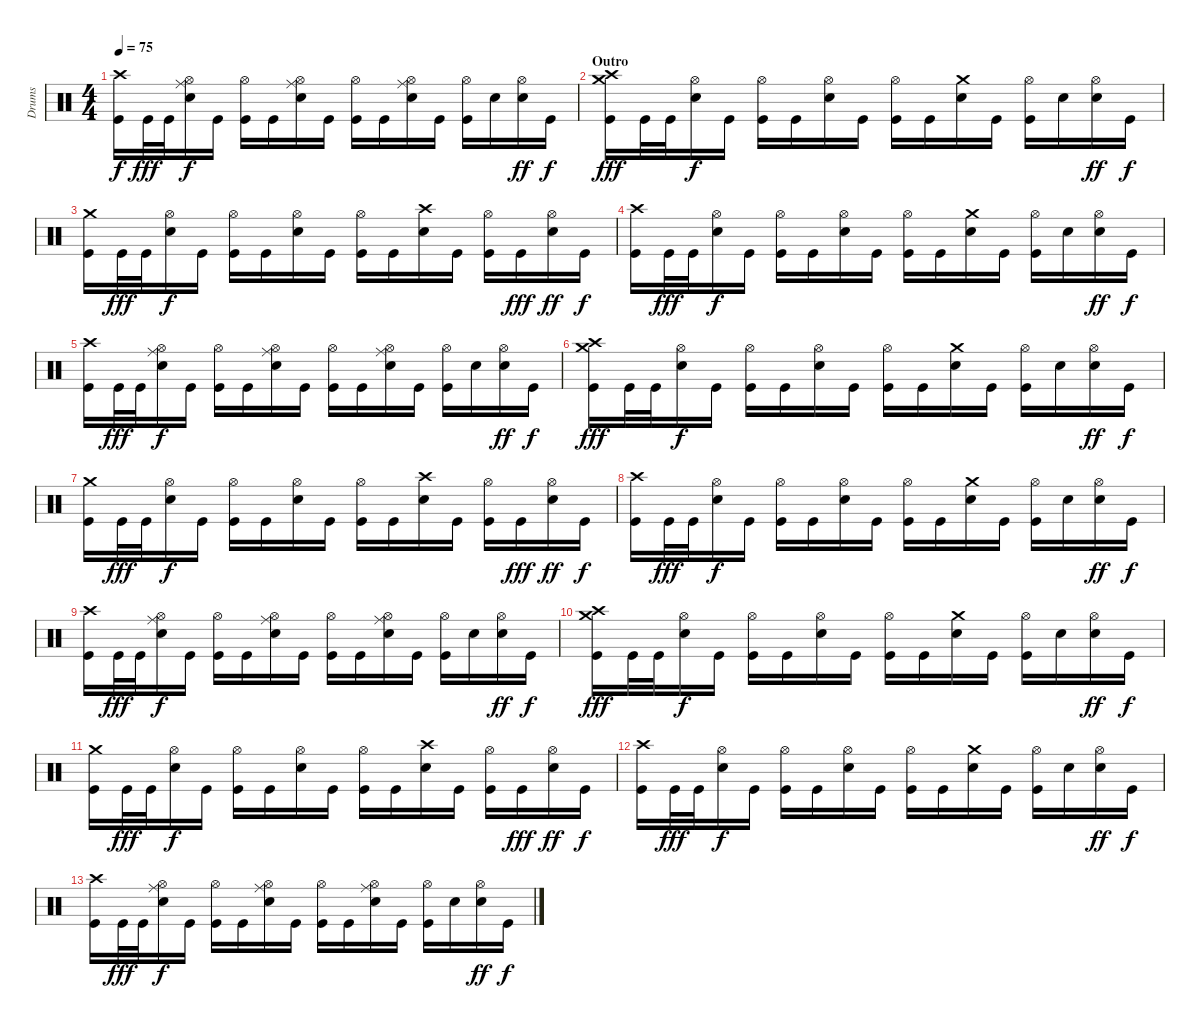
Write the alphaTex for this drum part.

\track ("Drums" "Drums") {instrument percussion}
\staff {score}
\articulation defaults
\ts (4 4)
\tempo 75
\clef neutral
\ks c
("Crash high (hit)" "Kick (hit)").16{dy f} "Kick (hit)".32{dy fff} "Kick (hit)".32 ("Hi-Hat (open)" "Ride (middle)" "Electric Snare (hit)").16{dy f} "Kick (hit)".16 ("Hi-Hat (open)" "Kick (hit)").16 "Kick (hit)".16 ("Hi-Hat (open)" "Ride (middle)" "Electric Snare (hit)").16 "Kick (hit)".16 ("Hi-Hat (open)" "Kick (hit)").16 "Kick (hit)".16 ("Hi-Hat (open)" "Ride (middle)" "Electric Snare (hit)").16 "Kick (hit)".16 ("Hi-Hat (open)" "Kick (hit)").16 "Electric Snare (hit)".16 ("Hi-Hat (open)" "Electric Snare (hit)").16{dy ff} "Kick (hit)".16{dy f} |
\section ("" "Outro")
("Crash medium (hit)" "Crash high (hit)" "Kick (hit)").16{dy fff} "Kick (hit)".32 "Kick (hit)".32 ("Hi-Hat (open)" "Electric Snare (hit)").16{dy f} "Kick (hit)".16 ("Hi-Hat (open)" "Kick (hit)").16 "Kick (hit)".16 ("Hi-Hat (open)" "Electric Snare (hit)").16 "Kick (hit)".16 ("Hi-Hat (open)" "Kick (hit)").16 "Kick (hit)".16 ("Crash medium (hit)" "Electric Snare (hit)").16 "Kick (hit)".16 ("Hi-Hat (open)" "Kick (hit)").16 "Electric Snare (hit)".16 ("Hi-Hat (open)" "Electric Snare (hit)").16{dy ff} "Kick (hit)".16{dy f} |
("Crash medium (hit)" "Kick (hit)").16 "Kick (hit)".32{dy fff} "Kick (hit)".32 ("Hi-Hat (open)" "Electric Snare (hit)").16{dy f} "Kick (hit)".16 ("Hi-Hat (open)" "Kick (hit)").16 "Kick (hit)".16 ("Hi-Hat (open)" "Electric Snare (hit)").16 "Kick (hit)".16 ("Hi-Hat (open)" "Kick (hit)").16 "Kick (hit)".16 ("Crash high (hit)" "Electric Snare (hit)").16 "Kick (hit)".16 ("Hi-Hat (open)" "Kick (hit)").16 "Kick (hit)".16{dy fff} ("Hi-Hat (open)" "Electric Snare (hit)").16{dy ff} "Kick (hit)".16{dy f} |
("Crash high (hit)" "Kick (hit)").16 "Kick (hit)".32{dy fff} "Kick (hit)".32 ("Hi-Hat (open)" "Electric Snare (hit)").16{dy f} "Kick (hit)".16 ("Hi-Hat (open)" "Kick (hit)").16 "Kick (hit)".16 ("Hi-Hat (open)" "Electric Snare (hit)").16 "Kick (hit)".16 ("Hi-Hat (open)" "Kick (hit)").16 "Kick (hit)".16 ("Crash medium (hit)" "Electric Snare (hit)").16 "Kick (hit)".16 ("Hi-Hat (open)" "Kick (hit)").16 "Electric Snare (hit)".16 ("Hi-Hat (open)" "Electric Snare (hit)").16{dy ff} "Kick (hit)".16{dy f} |
("Crash high (hit)" "Kick (hit)").16 "Kick (hit)".32{dy fff} "Kick (hit)".32 ("Hi-Hat (open)" "Ride (middle)" "Electric Snare (hit)").16{dy f} "Kick (hit)".16 ("Hi-Hat (open)" "Kick (hit)").16 "Kick (hit)".16 ("Hi-Hat (open)" "Ride (middle)" "Electric Snare (hit)").16 "Kick (hit)".16 ("Hi-Hat (open)" "Kick (hit)").16 "Kick (hit)".16 ("Hi-Hat (open)" "Ride (middle)" "Electric Snare (hit)").16 "Kick (hit)".16 ("Hi-Hat (open)" "Kick (hit)").16 "Electric Snare (hit)".16 ("Hi-Hat (open)" "Electric Snare (hit)").16{dy ff} "Kick (hit)".16{dy f} |
("Crash medium (hit)" "Crash high (hit)" "Kick (hit)").16{dy fff} "Kick (hit)".32 "Kick (hit)".32 ("Hi-Hat (open)" "Electric Snare (hit)").16{dy f} "Kick (hit)".16 ("Hi-Hat (open)" "Kick (hit)").16 "Kick (hit)".16 ("Hi-Hat (open)" "Electric Snare (hit)").16 "Kick (hit)".16 ("Hi-Hat (open)" "Kick (hit)").16 "Kick (hit)".16 ("Crash medium (hit)" "Electric Snare (hit)").16 "Kick (hit)".16 ("Hi-Hat (open)" "Kick (hit)").16 "Electric Snare (hit)".16 ("Hi-Hat (open)" "Electric Snare (hit)").16{dy ff} "Kick (hit)".16{dy f} |
("Crash medium (hit)" "Kick (hit)").16 "Kick (hit)".32{dy fff} "Kick (hit)".32 ("Hi-Hat (open)" "Electric Snare (hit)").16{dy f} "Kick (hit)".16 ("Hi-Hat (open)" "Kick (hit)").16 "Kick (hit)".16 ("Hi-Hat (open)" "Electric Snare (hit)").16 "Kick (hit)".16 ("Hi-Hat (open)" "Kick (hit)").16 "Kick (hit)".16 ("Crash high (hit)" "Electric Snare (hit)").16 "Kick (hit)".16 ("Hi-Hat (open)" "Kick (hit)").16 "Kick (hit)".16{dy fff} ("Hi-Hat (open)" "Electric Snare (hit)").16{dy ff} "Kick (hit)".16{dy f} |
("Crash high (hit)" "Kick (hit)").16 "Kick (hit)".32{dy fff} "Kick (hit)".32 ("Hi-Hat (open)" "Electric Snare (hit)").16{dy f} "Kick (hit)".16 ("Hi-Hat (open)" "Kick (hit)").16 "Kick (hit)".16 ("Hi-Hat (open)" "Electric Snare (hit)").16 "Kick (hit)".16 ("Hi-Hat (open)" "Kick (hit)").16 "Kick (hit)".16 ("Crash medium (hit)" "Electric Snare (hit)").16 "Kick (hit)".16 ("Hi-Hat (open)" "Kick (hit)").16 "Electric Snare (hit)".16 ("Hi-Hat (open)" "Electric Snare (hit)").16{dy ff} "Kick (hit)".16{dy f} |
("Crash high (hit)" "Kick (hit)").16{volume 0} "Kick (hit)".32{dy fff} "Kick (hit)".32 ("Hi-Hat (open)" "Ride (middle)" "Electric Snare (hit)").16{dy f} "Kick (hit)".16 ("Hi-Hat (open)" "Kick (hit)").16 "Kick (hit)".16 ("Hi-Hat (open)" "Ride (middle)" "Electric Snare (hit)").16 "Kick (hit)".16 ("Hi-Hat (open)" "Kick (hit)").16 "Kick (hit)".16 ("Hi-Hat (open)" "Ride (middle)" "Electric Snare (hit)").16 "Kick (hit)".16 ("Hi-Hat (open)" "Kick (hit)").16 "Electric Snare (hit)".16 ("Hi-Hat (open)" "Electric Snare (hit)").16{dy ff} "Kick (hit)".16{dy f} |
("Crash medium (hit)" "Crash high (hit)" "Kick (hit)").16{dy fff} "Kick (hit)".32 "Kick (hit)".32 ("Hi-Hat (open)" "Electric Snare (hit)").16{dy f} "Kick (hit)".16 ("Hi-Hat (open)" "Kick (hit)").16 "Kick (hit)".16 ("Hi-Hat (open)" "Electric Snare (hit)").16 "Kick (hit)".16 ("Hi-Hat (open)" "Kick (hit)").16 "Kick (hit)".16 ("Crash medium (hit)" "Electric Snare (hit)").16 "Kick (hit)".16 ("Hi-Hat (open)" "Kick (hit)").16 "Electric Snare (hit)".16 ("Hi-Hat (open)" "Electric Snare (hit)").16{dy ff} "Kick (hit)".16{dy f} |
("Crash medium (hit)" "Kick (hit)").16 "Kick (hit)".32{dy fff} "Kick (hit)".32 ("Hi-Hat (open)" "Electric Snare (hit)").16{dy f} "Kick (hit)".16 ("Hi-Hat (open)" "Kick (hit)").16 "Kick (hit)".16 ("Hi-Hat (open)" "Electric Snare (hit)").16 "Kick (hit)".16 ("Hi-Hat (open)" "Kick (hit)").16 "Kick (hit)".16 ("Crash high (hit)" "Electric Snare (hit)").16 "Kick (hit)".16 ("Hi-Hat (open)" "Kick (hit)").16 "Kick (hit)".16{dy fff} ("Hi-Hat (open)" "Electric Snare (hit)").16{dy ff} "Kick (hit)".16{dy f} |
("Crash high (hit)" "Kick (hit)").16 "Kick (hit)".32{dy fff} "Kick (hit)".32 ("Hi-Hat (open)" "Electric Snare (hit)").16{dy f} "Kick (hit)".16 ("Hi-Hat (open)" "Kick (hit)").16 "Kick (hit)".16 ("Hi-Hat (open)" "Electric Snare (hit)").16 "Kick (hit)".16 ("Hi-Hat (open)" "Kick (hit)").16 "Kick (hit)".16 ("Crash medium (hit)" "Electric Snare (hit)").16 "Kick (hit)".16 ("Hi-Hat (open)" "Kick (hit)").16 "Electric Snare (hit)".16 ("Hi-Hat (open)" "Electric Snare (hit)").16{dy ff} "Kick (hit)".16{dy f} |
("Crash high (hit)" "Kick (hit)").16 "Kick (hit)".32{dy fff} "Kick (hit)".32 ("Hi-Hat (open)" "Ride (middle)" "Electric Snare (hit)").16{dy f} "Kick (hit)".16 ("Hi-Hat (open)" "Kick (hit)").16 "Kick (hit)".16 ("Hi-Hat (open)" "Ride (middle)" "Electric Snare (hit)").16 "Kick (hit)".16 ("Hi-Hat (open)" "Kick (hit)").16 "Kick (hit)".16 ("Hi-Hat (open)" "Ride (middle)" "Electric Snare (hit)").16 "Kick (hit)".16 ("Hi-Hat (open)" "Kick (hit)").16 "Electric Snare (hit)".16 ("Hi-Hat (open)" "Electric Snare (hit)").16{dy ff} "Kick (hit)".16{dy f}
